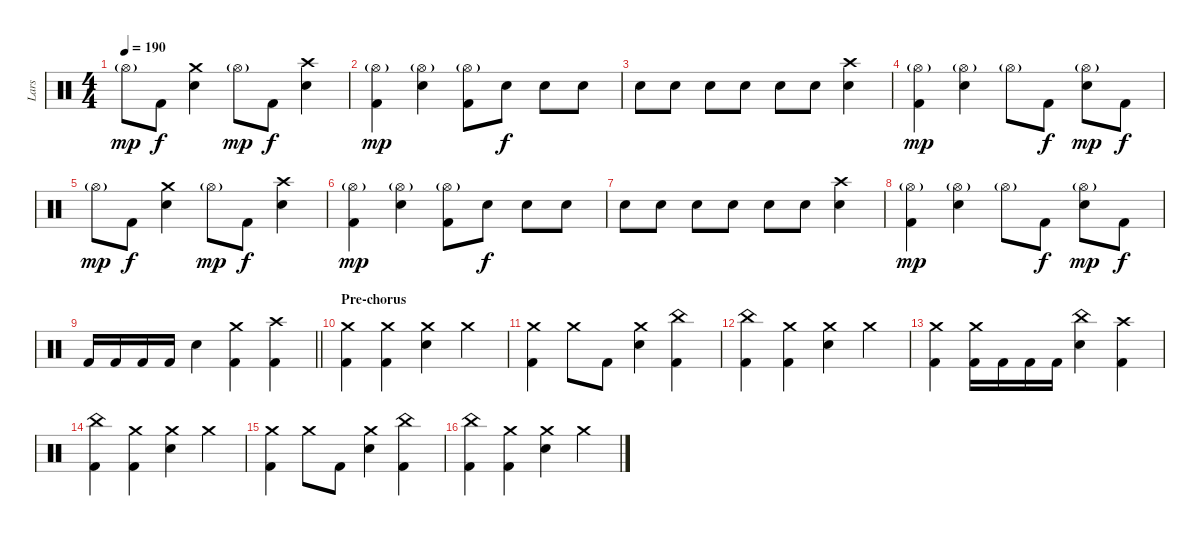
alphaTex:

\track ("Lars" "Lars") {instrument percussion}
\staff {score}
\articulation defaults
\ts (4 4)
\tempo 190
\clef neutral
\ks c "Hi-Hat (open)"{g}.8{dy mp} "Kick (hit) 2".8{dy f}
("Crash medium (hit)" "Electric Snare (hit)").4 "Hi-Hat (open)"{g}.8{dy mp} "Kick (hit) 2".8{dy f} ("Crash high (hit)" "Electric Snare (hit)").4 |
("Hi-Hat (open)"{g} "Kick (hit) 2").4{dy mp} ("Hi-Hat (open)"{g} "Electric Snare (hit)").4 ("Hi-Hat (open)"{g} "Kick (hit) 2").8 "Electric Snare (hit)".8{dy f} "Electric Snare (hit)".8 "Electric Snare (hit)".8 |
"Electric Snare (hit)".8 "Electric Snare (hit)".8 "Electric Snare (hit)".8 "Electric Snare (hit)".8 "Electric Snare (hit)".8 "Electric Snare (hit)".8 ("Crash high (hit)" "Electric Snare (hit)").4 |
("Hi-Hat (open)"{g} "Kick (hit) 2").4{dy mp} ("Hi-Hat (open)"{g} "Electric Snare (hit)").4 "Hi-Hat (open)"{g}.8 "Kick (hit) 2".8{dy f} ("Hi-Hat (open)"{g} "Electric Snare (hit)").8{dy mp} "Kick (hit) 2".8{dy f} |
"Hi-Hat (open)"{g}.8{dy mp} "Kick (hit) 2".8{dy f} ("Crash medium (hit)" "Electric Snare (hit)").4 "Hi-Hat (open)"{g}.8{dy mp} "Kick (hit) 2".8{dy f} ("Crash high (hit)" "Electric Snare (hit)").4 |
("Hi-Hat (open)"{g} "Kick (hit) 2").4{dy mp} ("Hi-Hat (open)"{g} "Electric Snare (hit)").4 ("Hi-Hat (open)"{g} "Kick (hit) 2").8 "Electric Snare (hit)".8{dy f} "Electric Snare (hit)".8 "Electric Snare (hit)".8 |
"Electric Snare (hit)".8 "Electric Snare (hit)".8 "Electric Snare (hit)".8 "Electric Snare (hit)".8 "Electric Snare (hit)".8 "Electric Snare (hit)".8 ("Crash high (hit)" "Electric Snare (hit)").4 |
("Hi-Hat (open)"{g} "Kick (hit) 2").4{dy mp} ("Hi-Hat (open)"{g} "Electric Snare (hit)").4 "Hi-Hat (open)"{g}.8 "Kick (hit) 2".8{dy f} ("Hi-Hat (open)"{g} "Electric Snare (hit)").8{dy mp} "Kick (hit) 2".8{dy f} |
\barLineRight lightlight "Kick (hit) 2".16 "Kick (hit) 2".16 "Kick (hit) 2".16 "Kick (hit) 2".16 "Electric Snare (hit)".4
("Crash medium (hit)" "Kick (hit) 2").4 ("Crash high (hit)" "Kick (hit) 2").4 |
\section ("" "Pre-chorus")
("Crash medium (hit)" "Kick (hit) 2").4 ("Crash medium (hit)" "Kick (hit) 2").4 ("Crash medium (hit)" "Electric Snare (hit)").4 "Crash medium (hit)".4 |
("Crash medium (hit)" "Kick (hit) 2").4 "Crash medium (hit)".8 "Kick (hit) 2".8 ("Crash medium (hit)" "Electric Snare (hit)").4 ("China (hit)" "Kick (hit) 2").4 |
("China (hit)" "Kick (hit) 2").4 ("Crash medium (hit)" "Kick (hit) 2").4 ("Crash medium (hit)" "Electric Snare (hit)").4 "Crash medium (hit)".4 |
("Crash medium (hit)" "Kick (hit) 2").4 ("Crash medium (hit)" "Kick (hit) 2").16 "Kick (hit) 2".16 "Kick (hit) 2".16 "Kick (hit) 2".16 ("China (hit)" "Electric Snare (hit)").4 ("Crash high (hit)" "Kick (hit) 2").4 |
("China (hit)" "Kick (hit) 2").4 ("Crash medium (hit)" "Kick (hit) 2").4 ("Crash medium (hit)" "Electric Snare (hit)").4 "Crash medium (hit)".4 |
("Crash medium (hit)" "Kick (hit) 2").4 "Crash medium (hit)".8 "Kick (hit) 2".8 ("Crash medium (hit)" "Electric Snare (hit)").4 ("China (hit)" "Kick (hit) 2").4 |
("China (hit)" "Kick (hit) 2").4 ("Crash medium (hit)" "Kick (hit) 2").4 ("Crash medium (hit)" "Electric Snare (hit)").4 "Crash medium (hit)".4
